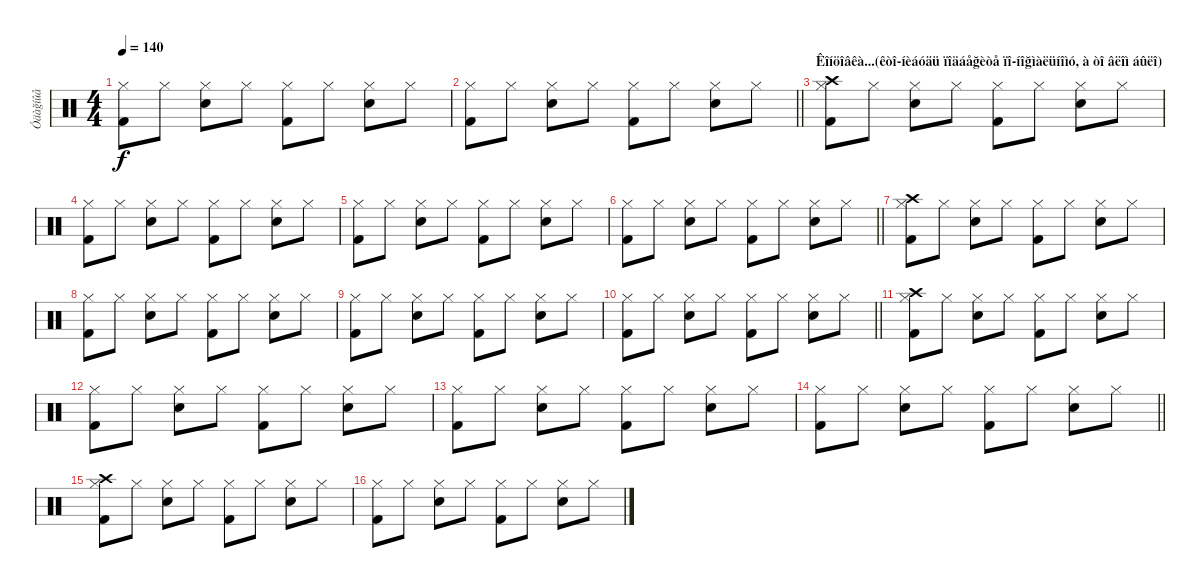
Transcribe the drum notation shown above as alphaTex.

\track ("Óäàğíûå" "Óäàğíûå") {instrument percussion}
\staff {score}
\articulation defaults
\ts (4 4)
\tempo 140
\clef neutral
\ks c
("Hi-Hat (closed)" "Kick (hit) 2").8{dy f} "Hi-Hat (closed)".8 ("Hi-Hat (closed)" "Snare (hit) 2").8 "Hi-Hat (closed)".8 ("Hi-Hat (closed)" "Kick (hit) 2").8 "Hi-Hat (closed)".8 ("Hi-Hat (closed)" "Snare (hit) 2").8 "Hi-Hat (closed)".8 |
\barLineRight lightlight
("Hi-Hat (closed)" "Kick (hit) 2").8 "Hi-Hat (closed)".8 ("Hi-Hat (closed)" "Snare (hit) 2").8 "Hi-Hat (closed)".8 ("Hi-Hat (closed)" "Kick (hit) 2").8 "Hi-Hat (closed)".8 ("Hi-Hat (closed)" "Snare (hit) 2").8 "Hi-Hat (closed)".8 |
\section ("" "Êîíöîâêà...(êòî-íèáóäü ïîäáåğèòå ïî-íîğìàëüíîìó, à òî âëîì áûëî)")
("Hi-Hat (closed)" "Kick (hit) 2" "Crash high (hit)").8 "Hi-Hat (closed)".8 ("Hi-Hat (closed)" "Snare (hit) 2").8 "Hi-Hat (closed)".8 ("Hi-Hat (closed)" "Kick (hit) 2").8 "Hi-Hat (closed)".8 ("Hi-Hat (closed)" "Snare (hit) 2").8 "Hi-Hat (closed)".8 |
("Hi-Hat (closed)" "Kick (hit) 2").8 "Hi-Hat (closed)".8 ("Hi-Hat (closed)" "Snare (hit) 2").8 "Hi-Hat (closed)".8 ("Hi-Hat (closed)" "Kick (hit) 2").8 "Hi-Hat (closed)".8 ("Hi-Hat (closed)" "Snare (hit) 2").8 "Hi-Hat (closed)".8 |
("Hi-Hat (closed)" "Kick (hit) 2").8 "Hi-Hat (closed)".8 ("Hi-Hat (closed)" "Snare (hit) 2").8 "Hi-Hat (closed)".8 ("Hi-Hat (closed)" "Kick (hit) 2").8 "Hi-Hat (closed)".8 ("Hi-Hat (closed)" "Snare (hit) 2").8 "Hi-Hat (closed)".8 |
\barLineRight lightlight
("Hi-Hat (closed)" "Kick (hit) 2").8 "Hi-Hat (closed)".8 ("Hi-Hat (closed)" "Snare (hit) 2").8 "Hi-Hat (closed)".8 ("Hi-Hat (closed)" "Kick (hit) 2").8 "Hi-Hat (closed)".8 ("Hi-Hat (closed)" "Snare (hit) 2").8 "Hi-Hat (closed)".8 |
("Hi-Hat (closed)" "Kick (hit) 2" "Crash high (hit)").8 "Hi-Hat (closed)".8 ("Hi-Hat (closed)" "Snare (hit) 2").8 "Hi-Hat (closed)".8 ("Hi-Hat (closed)" "Kick (hit) 2").8 "Hi-Hat (closed)".8 ("Hi-Hat (closed)" "Snare (hit) 2").8 "Hi-Hat (closed)".8 |
("Hi-Hat (closed)" "Kick (hit) 2").8 "Hi-Hat (closed)".8 ("Hi-Hat (closed)" "Snare (hit) 2").8 "Hi-Hat (closed)".8 ("Hi-Hat (closed)" "Kick (hit) 2").8 "Hi-Hat (closed)".8 ("Hi-Hat (closed)" "Snare (hit) 2").8 "Hi-Hat (closed)".8 |
("Hi-Hat (closed)" "Kick (hit) 2").8 "Hi-Hat (closed)".8 ("Hi-Hat (closed)" "Snare (hit) 2").8 "Hi-Hat (closed)".8 ("Hi-Hat (closed)" "Kick (hit) 2").8 "Hi-Hat (closed)".8 ("Hi-Hat (closed)" "Snare (hit) 2").8 "Hi-Hat (closed)".8 |
\barLineRight lightlight
("Hi-Hat (closed)" "Kick (hit) 2").8 "Hi-Hat (closed)".8 ("Hi-Hat (closed)" "Snare (hit) 2").8 "Hi-Hat (closed)".8 ("Hi-Hat (closed)" "Kick (hit) 2").8 "Hi-Hat (closed)".8 ("Hi-Hat (closed)" "Snare (hit) 2").8 "Hi-Hat (closed)".8 |
("Hi-Hat (closed)" "Kick (hit) 2" "Crash high (hit)").8 "Hi-Hat (closed)".8 ("Hi-Hat (closed)" "Snare (hit) 2").8 "Hi-Hat (closed)".8 ("Hi-Hat (closed)" "Kick (hit) 2").8 "Hi-Hat (closed)".8 ("Hi-Hat (closed)" "Snare (hit) 2").8 "Hi-Hat (closed)".8 |
("Hi-Hat (closed)" "Kick (hit) 2").8 "Hi-Hat (closed)".8 ("Hi-Hat (closed)" "Snare (hit) 2").8 "Hi-Hat (closed)".8 ("Hi-Hat (closed)" "Kick (hit) 2").8 "Hi-Hat (closed)".8 ("Hi-Hat (closed)" "Snare (hit) 2").8 "Hi-Hat (closed)".8 |
("Hi-Hat (closed)" "Kick (hit) 2").8 "Hi-Hat (closed)".8 ("Hi-Hat (closed)" "Snare (hit) 2").8 "Hi-Hat (closed)".8 ("Hi-Hat (closed)" "Kick (hit) 2").8 "Hi-Hat (closed)".8 ("Hi-Hat (closed)" "Snare (hit) 2").8 "Hi-Hat (closed)".8 |
\barLineRight lightlight
("Hi-Hat (closed)" "Kick (hit) 2").8 "Hi-Hat (closed)".8 ("Hi-Hat (closed)" "Snare (hit) 2").8 "Hi-Hat (closed)".8 ("Hi-Hat (closed)" "Kick (hit) 2").8 "Hi-Hat (closed)".8 ("Hi-Hat (closed)" "Snare (hit) 2").8 "Hi-Hat (closed)".8 |
("Hi-Hat (closed)" "Kick (hit) 2" "Crash high (hit)").8 "Hi-Hat (closed)".8 ("Hi-Hat (closed)" "Snare (hit) 2").8 "Hi-Hat (closed)".8 ("Hi-Hat (closed)" "Kick (hit) 2").8 "Hi-Hat (closed)".8 ("Hi-Hat (closed)" "Snare (hit) 2").8 "Hi-Hat (closed)".8 |
("Hi-Hat (closed)" "Kick (hit) 2").8 "Hi-Hat (closed)".8 ("Hi-Hat (closed)" "Snare (hit) 2").8 "Hi-Hat (closed)".8 ("Hi-Hat (closed)" "Kick (hit) 2").8 "Hi-Hat (closed)".8 ("Hi-Hat (closed)" "Snare (hit) 2").8 "Hi-Hat (closed)".8
